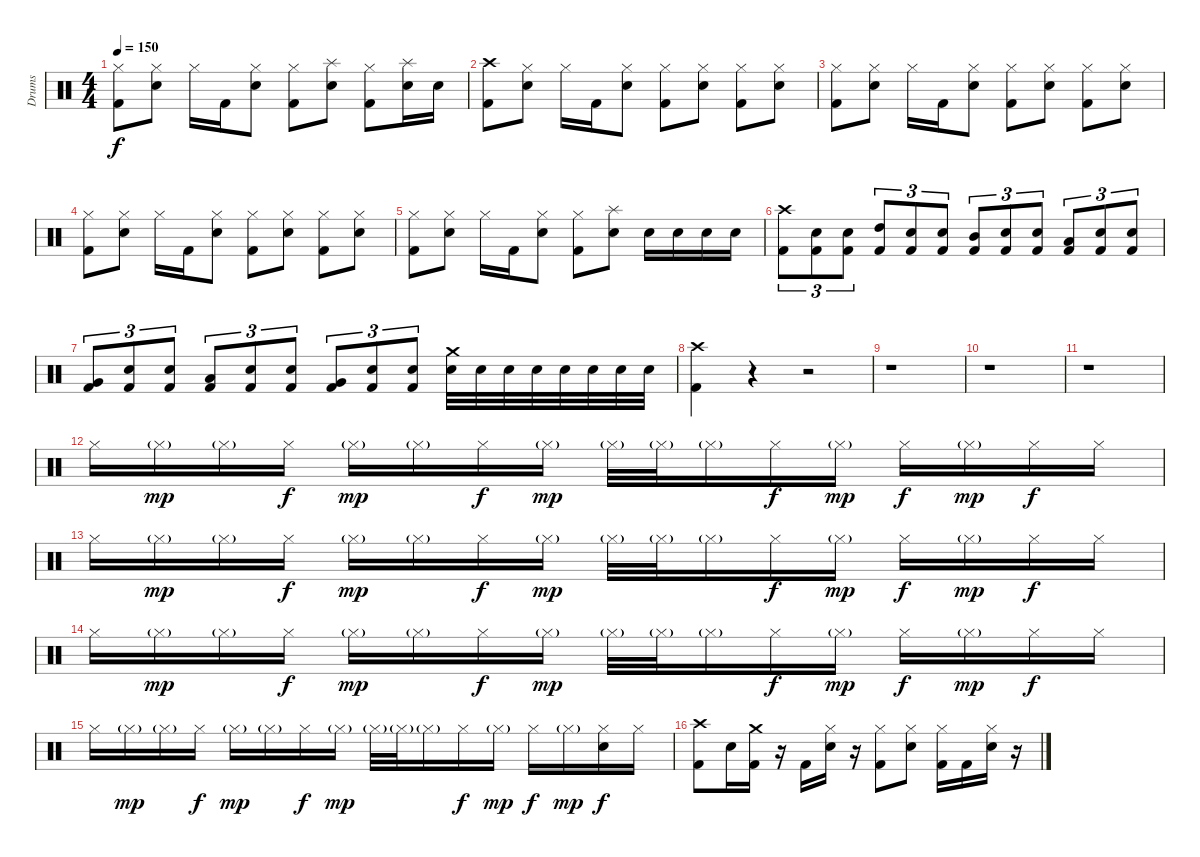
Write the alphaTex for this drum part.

\track ("Drums" "Drums") {instrument percussion}
\staff {score}
\articulation defaults
\ts (4 4)
\tempo 150
\clef neutral
\ks c
("Hi-Hat (closed)" "Kick (hit) 2").8{dy f} ("Hi-Hat (closed)" "Snare (hit) 2").8 "Hi-Hat (closed)".16 "Kick (hit) 2".16 ("Hi-Hat (closed)" "Snare (hit) 2").8 ("Hi-Hat (closed)" "Kick (hit) 2").8 ("Splash (hit)" "Snare (hit) 2").8 ("Hi-Hat (closed)" "Kick (hit) 2").8 ("Splash (hit)" "Snare (hit) 2").16 "Snare (hit) 2".16 |
("Crash high (hit)" "Kick (hit) 2").8 ("Hi-Hat (closed)" "Snare (hit) 2").8 "Hi-Hat (closed)".16 "Kick (hit) 2".16 ("Hi-Hat (closed)" "Snare (hit) 2").8 ("Hi-Hat (closed)" "Kick (hit) 2").8 ("Hi-Hat (closed)" "Snare (hit) 2").8 ("Hi-Hat (closed)" "Kick (hit) 2").8 ("Hi-Hat (closed)" "Snare (hit) 2").8 |
("Hi-Hat (closed)" "Kick (hit) 2").8 ("Hi-Hat (closed)" "Snare (hit) 2").8 "Hi-Hat (closed)".16 "Kick (hit) 2".16 ("Hi-Hat (closed)" "Snare (hit) 2").8 ("Hi-Hat (closed)" "Kick (hit) 2").8 ("Hi-Hat (closed)" "Snare (hit) 2").8 ("Hi-Hat (closed)" "Kick (hit) 2").8 ("Hi-Hat (closed)" "Snare (hit) 2").8 |
("Hi-Hat (closed)" "Kick (hit) 2").8 ("Hi-Hat (closed)" "Snare (hit) 2").8 "Hi-Hat (closed)".16 "Kick (hit) 2".16 ("Hi-Hat (closed)" "Snare (hit) 2").8 ("Hi-Hat (closed)" "Kick (hit) 2").8 ("Hi-Hat (closed)" "Snare (hit) 2").8 ("Hi-Hat (closed)" "Kick (hit) 2").8 ("Hi-Hat (closed)" "Snare (hit) 2").8 |
("Hi-Hat (closed)" "Kick (hit) 2").8 ("Hi-Hat (closed)" "Snare (hit) 2").8 "Hi-Hat (closed)".16 "Kick (hit) 2".16 ("Hi-Hat (closed)" "Snare (hit) 2").8 ("Hi-Hat (closed)" "Kick (hit) 2").8 ("Splash (hit)" "Snare (hit) 2").8 "Snare (hit) 2".16 "Snare (hit) 2".16 "Snare (hit) 2".16 "Snare (hit) 2".16 |
("Crash high (hit)" "Kick (hit) 2").8{tu (3 2)} ("Snare (hit) 2" "Kick (hit) 2").8{tu (3 2)} ("Snare (hit) 2" "Kick (hit) 2").8{tu (3 2)} ("High Tom (hit)" "Kick (hit) 2").8{tu (3 2)} ("Snare (hit) 2" "Kick (hit) 2").8{tu (3 2)} ("Snare (hit) 2" "Kick (hit) 2").8{tu (3 2)} ("Mid Tom (hit)" "Kick (hit) 2").8{tu (3 2)} ("Snare (hit) 2" "Kick (hit) 2").8{tu (3 2)} ("Snare (hit) 2" "Kick (hit) 2").8{tu (3 2)} ("Low Tom (hit)" "Kick (hit) 2").8{tu (3 2)} ("Snare (hit) 2" "Kick (hit) 2").8{tu (3 2)} ("Snare (hit) 2" "Kick (hit) 2").8{tu (3 2)} |
("Very Low Tom (hit)" "Kick (hit) 2").8{tu (3 2)} ("Snare (hit) 2" "Kick (hit) 2").8{tu (3 2)} ("Snare (hit) 2" "Kick (hit) 2").8{tu (3 2)} ("Low Floor Tom (hit)" "Kick (hit) 2").8{tu (3 2)} ("Snare (hit) 2" "Kick (hit) 2").8{tu (3 2)} ("Snare (hit) 2" "Kick (hit) 2").8{tu (3 2)} ("Very Low Tom (hit)" "Kick (hit) 2").8{tu (3 2)} ("Snare (hit) 2" "Kick (hit) 2").8{tu (3 2)} ("Snare (hit) 2" "Kick (hit) 2").8{tu (3 2)} ("Crash medium (hit)" "Snare (hit) 2").32 "Snare (hit) 2".32 "Snare (hit) 2".32 "Snare (hit) 2".32 "Snare (hit) 2".32 "Snare (hit) 2".32 "Snare (hit) 2".32 "Snare (hit) 2".32 |
("Crash high (hit)" "Kick (hit) 2").4 r.4 r.2 |
r.1 |
r.1 |
r.1 |
"Hi-Hat (closed)".16 "Hi-Hat (closed)"{g}.16{dy mp} "Hi-Hat (closed)"{g}.16 "Hi-Hat (closed)".16{dy f} "Hi-Hat (closed)"{g}.16{dy mp} "Hi-Hat (closed)"{g}.16 "Hi-Hat (closed)".16{dy f} "Hi-Hat (closed)"{g}.16{dy mp} "Hi-Hat (closed)"{g}.32 "Hi-Hat (closed)"{g}.32 "Hi-Hat (closed)"{g}.16 "Hi-Hat (closed)".16{dy f} "Hi-Hat (closed)"{g}.16{dy mp} "Hi-Hat (closed)".16{dy f} "Hi-Hat (closed)"{g}.16{dy mp} "Hi-Hat (closed)".16{dy f} "Hi-Hat (closed)".16 |
"Hi-Hat (closed)".16 "Hi-Hat (closed)"{g}.16{dy mp} "Hi-Hat (closed)"{g}.16 "Hi-Hat (closed)".16{dy f} "Hi-Hat (closed)"{g}.16{dy mp} "Hi-Hat (closed)"{g}.16 "Hi-Hat (closed)".16{dy f} "Hi-Hat (closed)"{g}.16{dy mp} "Hi-Hat (closed)"{g}.32 "Hi-Hat (closed)"{g}.32 "Hi-Hat (closed)"{g}.16 "Hi-Hat (closed)".16{dy f} "Hi-Hat (closed)"{g}.16{dy mp} "Hi-Hat (closed)".16{dy f} "Hi-Hat (closed)"{g}.16{dy mp} "Hi-Hat (closed)".16{dy f} "Hi-Hat (closed)".16 |
"Hi-Hat (closed)".16 "Hi-Hat (closed)"{g}.16{dy mp} "Hi-Hat (closed)"{g}.16 "Hi-Hat (closed)".16{dy f} "Hi-Hat (closed)"{g}.16{dy mp} "Hi-Hat (closed)"{g}.16 "Hi-Hat (closed)".16{dy f} "Hi-Hat (closed)"{g}.16{dy mp} "Hi-Hat (closed)"{g}.32 "Hi-Hat (closed)"{g}.32 "Hi-Hat (closed)"{g}.16 "Hi-Hat (closed)".16{dy f} "Hi-Hat (closed)"{g}.16{dy mp} "Hi-Hat (closed)".16{dy f} "Hi-Hat (closed)"{g}.16{dy mp} "Hi-Hat (closed)".16{dy f} "Hi-Hat (closed)".16 |
"Hi-Hat (closed)".16 "Hi-Hat (closed)"{g}.16{dy mp} "Hi-Hat (closed)"{g}.16 "Hi-Hat (closed)".16{dy f} "Hi-Hat (closed)"{g}.16{dy mp} "Hi-Hat (closed)"{g}.16 "Hi-Hat (closed)".16{dy f} "Hi-Hat (closed)"{g}.16{dy mp} "Hi-Hat (closed)"{g}.32 "Hi-Hat (closed)"{g}.32 "Hi-Hat (closed)"{g}.16 "Hi-Hat (closed)".16{dy f} "Hi-Hat (closed)"{g}.16{dy mp} "Hi-Hat (closed)".16{dy f} "Hi-Hat (closed)"{g}.16{dy mp} ("Hi-Hat (closed)" "Snare (hit) 2").16{dy f} "Hi-Hat (closed)".16 |
("Crash high (hit)" "Kick (hit) 2").8 "Snare (hit) 2".16 ("Crash medium (hit)" "Kick (hit) 2").16 r.16 "Kick (hit) 2".16 ("Hi-Hat (closed)" "Snare (hit) 2").16 r.16 ("Hi-Hat (closed)" "Kick (hit) 2").8 ("Hi-Hat (closed)" "Snare (hit) 2").8 ("Hi-Hat (closed)" "Kick (hit) 2").16 "Kick (hit) 2".16 ("Hi-Hat (closed)" "Snare (hit) 2").16 r.16
